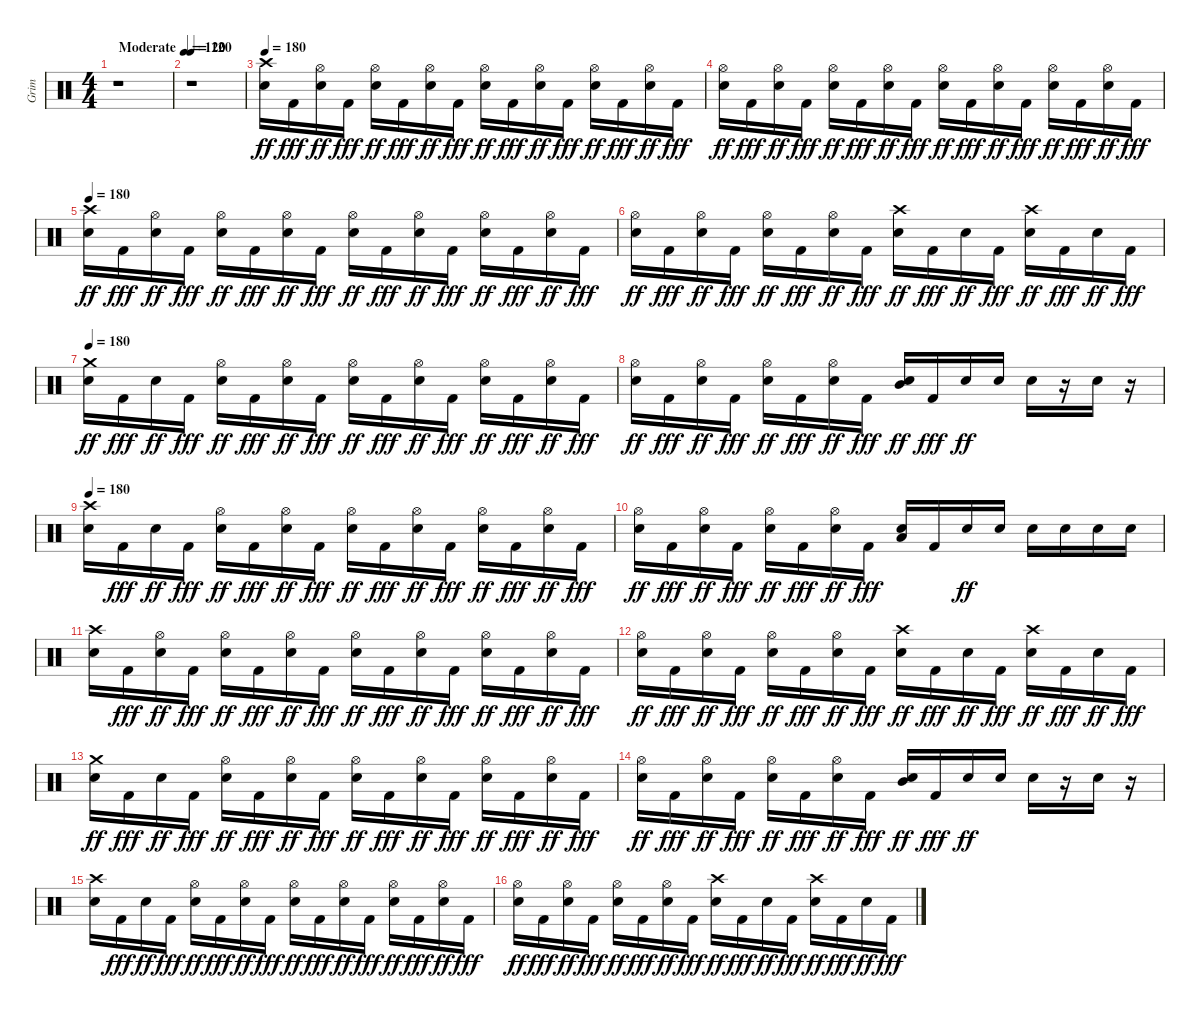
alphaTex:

\track ("Grim" "Grim") {instrument percussion}
\staff {score}
\articulation defaults
\ts (4 4)
\tempo (120 "Moderate")
\tempo 160
\tempo (120 "Moderate")
\clef neutral
\ks c
r.1{dy ff} |
\tempo 120
r.1 |
\tempo 180
("Crash high (hit)" "Electric Snare (hit)").16 "Kick (hit) 2".16{dy fff} ("Hi-Hat (open)" "Electric Snare (hit)").16{dy ff} "Kick (hit) 2".16{dy fff} ("Hi-Hat (open)" "Electric Snare (hit)").16{dy ff} "Kick (hit) 2".16{dy fff} ("Hi-Hat (open)" "Electric Snare (hit)").16{dy ff} "Kick (hit) 2".16{dy fff} ("Hi-Hat (open)" "Electric Snare (hit)").16{dy ff} "Kick (hit) 2".16{dy fff} ("Hi-Hat (open)" "Electric Snare (hit)").16{dy ff} "Kick (hit) 2".16{dy fff} ("Hi-Hat (open)" "Electric Snare (hit)").16{dy ff} "Kick (hit) 2".16{dy fff} ("Hi-Hat (open)" "Electric Snare (hit)").16{dy ff} "Kick (hit) 2".16{dy fff} |
("Hi-Hat (open)" "Electric Snare (hit)").16{dy ff} "Kick (hit) 2".16{dy fff} ("Hi-Hat (open)" "Electric Snare (hit)").16{dy ff} "Kick (hit) 2".16{dy fff} ("Hi-Hat (open)" "Electric Snare (hit)").16{dy ff} "Kick (hit) 2".16{dy fff} ("Hi-Hat (open)" "Electric Snare (hit)").16{dy ff} "Kick (hit) 2".16{dy fff} ("Hi-Hat (open)" "Electric Snare (hit)").16{dy ff} "Kick (hit) 2".16{dy fff} ("Hi-Hat (open)" "Electric Snare (hit)").16{dy ff} "Kick (hit) 2".16{dy fff} ("Hi-Hat (open)" "Electric Snare (hit)").16{dy ff} "Kick (hit) 2".16{dy fff} ("Hi-Hat (open)" "Electric Snare (hit)").16{dy ff} "Kick (hit) 2".16{dy fff} |
\tempo 180
("Crash high (hit)" "Electric Snare (hit)").16{dy ff} "Kick (hit) 2".16{dy fff} ("Hi-Hat (open)" "Electric Snare (hit)").16{dy ff} "Kick (hit) 2".16{dy fff} ("Hi-Hat (open)" "Electric Snare (hit)").16{dy ff} "Kick (hit) 2".16{dy fff} ("Hi-Hat (open)" "Electric Snare (hit)").16{dy ff} "Kick (hit) 2".16{dy fff} ("Hi-Hat (open)" "Electric Snare (hit)").16{dy ff} "Kick (hit) 2".16{dy fff} ("Hi-Hat (open)" "Electric Snare (hit)").16{dy ff} "Kick (hit) 2".16{dy fff} ("Hi-Hat (open)" "Electric Snare (hit)").16{dy ff} "Kick (hit) 2".16{dy fff} ("Hi-Hat (open)" "Electric Snare (hit)").16{dy ff} "Kick (hit) 2".16{dy fff} |
("Hi-Hat (open)" "Electric Snare (hit)").16{dy ff} "Kick (hit) 2".16{dy fff} ("Hi-Hat (open)" "Electric Snare (hit)").16{dy ff} "Kick (hit) 2".16{dy fff} ("Hi-Hat (open)" "Electric Snare (hit)").16{dy ff} "Kick (hit) 2".16{dy fff} ("Hi-Hat (open)" "Electric Snare (hit)").16{dy ff} "Kick (hit) 2".16{dy fff} ("Crash high (hit)" "Electric Snare (hit)").16{dy ff} "Kick (hit) 2".16{dy fff} "Electric Snare (hit)".16{dy ff} "Kick (hit) 2".16{dy fff} ("Crash high (hit)" "Electric Snare (hit)").16{dy ff} "Kick (hit) 2".16{dy fff} "Electric Snare (hit)".16{dy ff} "Kick (hit) 2".16{dy fff} |
\tempo 180
("Crash medium (hit)" "Electric Snare (hit)").16{dy ff} "Kick (hit) 2".16{dy fff} "Electric Snare (hit)".16{dy ff} "Kick (hit) 2".16{dy fff} ("Hi-Hat (open)" "Electric Snare (hit)").16{dy ff} "Kick (hit) 2".16{dy fff} ("Hi-Hat (open)" "Electric Snare (hit)").16{dy ff} "Kick (hit) 2".16{dy fff} ("Hi-Hat (open)" "Electric Snare (hit)").16{dy ff} "Kick (hit) 2".16{dy fff} ("Hi-Hat (open)" "Electric Snare (hit)").16{dy ff} "Kick (hit) 2".16{dy fff} ("Hi-Hat (open)" "Electric Snare (hit)").16{dy ff} "Kick (hit) 2".16{dy fff} ("Hi-Hat (open)" "Electric Snare (hit)").16{dy ff} "Kick (hit) 2".16{dy fff} |
("Hi-Hat (open)" "Electric Snare (hit)").16{dy ff} "Kick (hit) 2".16{dy fff} ("Hi-Hat (open)" "Electric Snare (hit)").16{dy ff} "Kick (hit) 2".16{dy fff} ("Hi-Hat (open)" "Electric Snare (hit)").16{dy ff} "Kick (hit) 2".16{dy fff} ("Hi-Hat (open)" "Electric Snare (hit)").16{dy ff} "Kick (hit) 2".16{dy fff} ("Mid Tom (hit)" "Electric Snare (hit)").16{dy ff} "Kick (hit) 2".16{dy fff} "Electric Snare (hit)".16{dy ff} "Electric Snare (hit)".16 "Electric Snare (hit)".16 r.16 "Electric Snare (hit)".16 r.16 |
\tempo 180
("Crash high (hit)" "Electric Snare (hit)").16 "Kick (hit) 2".16{dy fff} "Electric Snare (hit)".16{dy ff} "Kick (hit) 2".16{dy fff} ("Hi-Hat (open)" "Electric Snare (hit)").16{dy ff} "Kick (hit) 2".16{dy fff} ("Hi-Hat (open)" "Electric Snare (hit)").16{dy ff} "Kick (hit) 2".16{dy fff} ("Hi-Hat (open)" "Electric Snare (hit)").16{dy ff} "Kick (hit) 2".16{dy fff} ("Hi-Hat (open)" "Electric Snare (hit)").16{dy ff} "Kick (hit) 2".16{dy fff} ("Hi-Hat (open)" "Electric Snare (hit)").16{dy ff} "Kick (hit) 2".16{dy fff} ("Hi-Hat (open)" "Electric Snare (hit)").16{dy ff} "Kick (hit) 2".16{dy fff} |
("Hi-Hat (open)" "Electric Snare (hit)").16{dy ff} "Kick (hit) 2".16{dy fff} ("Hi-Hat (open)" "Electric Snare (hit)").16{dy ff} "Kick (hit) 2".16{dy fff} ("Hi-Hat (open)" "Electric Snare (hit)").16{dy ff} "Kick (hit) 2".16{dy fff} ("Hi-Hat (open)" "Electric Snare (hit)").16{dy ff} "Kick (hit) 2".16{dy fff} ("Electric Snare (hit)" "Low Tom (hit)").16 "Kick (hit) 2".16 "Electric Snare (hit)".16{dy ff} "Electric Snare (hit)".16 "Electric Snare (hit)".16 "Electric Snare (hit)".16 "Electric Snare (hit)".16 "Electric Snare (hit)".16 |
("Crash high (hit)" "Electric Snare (hit)").16 "Kick (hit) 2".16{dy fff} ("Hi-Hat (open)" "Electric Snare (hit)").16{dy ff} "Kick (hit) 2".16{dy fff} ("Hi-Hat (open)" "Electric Snare (hit)").16{dy ff} "Kick (hit) 2".16{dy fff} ("Hi-Hat (open)" "Electric Snare (hit)").16{dy ff} "Kick (hit) 2".16{dy fff} ("Hi-Hat (open)" "Electric Snare (hit)").16{dy ff} "Kick (hit) 2".16{dy fff} ("Hi-Hat (open)" "Electric Snare (hit)").16{dy ff} "Kick (hit) 2".16{dy fff} ("Hi-Hat (open)" "Electric Snare (hit)").16{dy ff} "Kick (hit) 2".16{dy fff} ("Hi-Hat (open)" "Electric Snare (hit)").16{dy ff} "Kick (hit) 2".16{dy fff} |
("Hi-Hat (open)" "Electric Snare (hit)").16{dy ff} "Kick (hit) 2".16{dy fff} ("Hi-Hat (open)" "Electric Snare (hit)").16{dy ff} "Kick (hit) 2".16{dy fff} ("Hi-Hat (open)" "Electric Snare (hit)").16{dy ff} "Kick (hit) 2".16{dy fff} ("Hi-Hat (open)" "Electric Snare (hit)").16{dy ff} "Kick (hit) 2".16{dy fff} ("Crash high (hit)" "Electric Snare (hit)").16{dy ff} "Kick (hit) 2".16{dy fff} "Electric Snare (hit)".16{dy ff} "Kick (hit) 2".16{dy fff} ("Crash high (hit)" "Electric Snare (hit)").16{dy ff} "Kick (hit) 2".16{dy fff} "Electric Snare (hit)".16{dy ff} "Kick (hit) 2".16{dy fff} |
("Crash medium (hit)" "Electric Snare (hit)").16{dy ff} "Kick (hit) 2".16{dy fff} "Electric Snare (hit)".16{dy ff} "Kick (hit) 2".16{dy fff} ("Hi-Hat (open)" "Electric Snare (hit)").16{dy ff} "Kick (hit) 2".16{dy fff} ("Hi-Hat (open)" "Electric Snare (hit)").16{dy ff} "Kick (hit) 2".16{dy fff} ("Hi-Hat (open)" "Electric Snare (hit)").16{dy ff} "Kick (hit) 2".16{dy fff} ("Hi-Hat (open)" "Electric Snare (hit)").16{dy ff} "Kick (hit) 2".16{dy fff} ("Hi-Hat (open)" "Electric Snare (hit)").16{dy ff} "Kick (hit) 2".16{dy fff} ("Hi-Hat (open)" "Electric Snare (hit)").16{dy ff} "Kick (hit) 2".16{dy fff} |
("Hi-Hat (open)" "Electric Snare (hit)").16{dy ff} "Kick (hit) 2".16{dy fff} ("Hi-Hat (open)" "Electric Snare (hit)").16{dy ff} "Kick (hit) 2".16{dy fff} ("Hi-Hat (open)" "Electric Snare (hit)").16{dy ff} "Kick (hit) 2".16{dy fff} ("Hi-Hat (open)" "Electric Snare (hit)").16{dy ff} "Kick (hit) 2".16{dy fff} ("Mid Tom (hit)" "Electric Snare (hit)").16{dy ff} "Kick (hit) 2".16{dy fff} "Electric Snare (hit)".16{dy ff} "Electric Snare (hit)".16 "Electric Snare (hit)".16 r.16 "Electric Snare (hit)".16 r.16 |
("Crash high (hit)" "Electric Snare (hit)").16 "Kick (hit) 2".16{dy fff} "Electric Snare (hit)".16{dy ff} "Kick (hit) 2".16{dy fff} ("Hi-Hat (open)" "Electric Snare (hit)").16{dy ff} "Kick (hit) 2".16{dy fff} ("Hi-Hat (open)" "Electric Snare (hit)").16{dy ff} "Kick (hit) 2".16{dy fff} ("Hi-Hat (open)" "Electric Snare (hit)").16{dy ff} "Kick (hit) 2".16{dy fff} ("Hi-Hat (open)" "Electric Snare (hit)").16{dy ff} "Kick (hit) 2".16{dy fff} ("Hi-Hat (open)" "Electric Snare (hit)").16{dy ff} "Kick (hit) 2".16{dy fff} ("Hi-Hat (open)" "Electric Snare (hit)").16{dy ff} "Kick (hit) 2".16{dy fff} |
("Hi-Hat (open)" "Electric Snare (hit)").16{dy ff} "Kick (hit) 2".16{dy fff} ("Hi-Hat (open)" "Electric Snare (hit)").16{dy ff} "Kick (hit) 2".16{dy fff} ("Hi-Hat (open)" "Electric Snare (hit)").16{dy ff} "Kick (hit) 2".16{dy fff} ("Hi-Hat (open)" "Electric Snare (hit)").16{dy ff} "Kick (hit) 2".16{dy fff} ("Crash high (hit)" "Electric Snare (hit)").16{dy ff} "Kick (hit) 2".16{dy fff} "Electric Snare (hit)".16{dy ff} "Kick (hit) 2".16{dy fff} ("Crash high (hit)" "Electric Snare (hit)").16{dy ff} "Kick (hit) 2".16{dy fff} "Electric Snare (hit)".16{dy ff} "Kick (hit) 2".16{dy fff}
